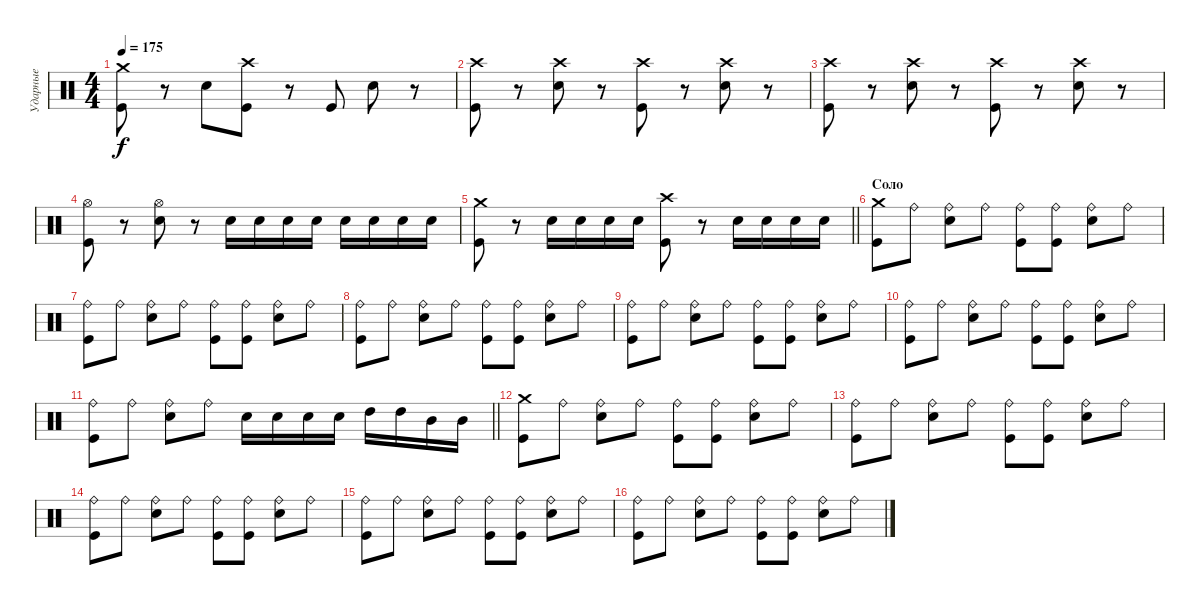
\track ("Ударные" "Ударные") {instrument percussion}
\staff {score}
\articulation defaults
\ts (4 4)
\tempo 175
\clef neutral
\ks c
("Crash medium (hit)" "Kick (hit)").8{dy f} r.8 "Electric Snare (hit)".8 ("Crash high (hit)" "Kick (hit)").8 r.8 "Kick (hit)".8 "Electric Snare (hit)".8 r.8 |
("Crash high (hit)" "Kick (hit)").8 r.8 ("Crash high (hit)" "Electric Snare (hit)").8 r.8 ("Crash high (hit)" "Kick (hit)").8 r.8 ("Crash high (hit)" "Electric Snare (hit)").8 r.8 |
("Crash high (hit)" "Kick (hit)").8 r.8 ("Crash high (hit)" "Electric Snare (hit)").8 r.8 ("Crash high (hit)" "Kick (hit)").8 r.8 ("Crash high (hit)" "Electric Snare (hit)").8 r.8 |
("Hi-Hat (open)" "Kick (hit)").8 r.8 ("Hi-Hat (open)" "Electric Snare (hit)").8 r.8 "Electric Snare (hit)".16 "Electric Snare (hit)".16 "Electric Snare (hit)".16 "Electric Snare (hit)".16 "Electric Snare (hit)".16 "Electric Snare (hit)".16 "Electric Snare (hit)".16 "Electric Snare (hit)".16 |
\barLineRight lightlight
("Crash medium (hit)" "Kick (hit)").8 r.8 "Electric Snare (hit)".16 "Electric Snare (hit)".16 "Electric Snare (hit)".16 "Electric Snare (hit)".16 ("Crash high (hit)" "Kick (hit)").8 r.8 "Electric Snare (hit)".16 "Electric Snare (hit)".16 "Electric Snare (hit)".16 "Electric Snare (hit)".16 |
\section ("" "Соло")
("Crash medium (hit)" "Kick (hit)").8 "Ride (bell)".8 ("Ride (bell)" "Electric Snare (hit)").8 "Ride (bell)".8 ("Ride (bell)" "Kick (hit)").8 ("Ride (bell)" "Kick (hit)").8 ("Ride (bell)" "Electric Snare (hit)").8 "Ride (bell)".8 |
("Ride (bell)" "Kick (hit)").8 "Ride (bell)".8 ("Ride (bell)" "Electric Snare (hit)").8 "Ride (bell)".8 ("Ride (bell)" "Kick (hit)").8 ("Ride (bell)" "Kick (hit)").8 ("Ride (bell)" "Electric Snare (hit)").8 "Ride (bell)".8 |
("Ride (bell)" "Kick (hit)").8 "Ride (bell)".8 ("Ride (bell)" "Electric Snare (hit)").8 "Ride (bell)".8 ("Ride (bell)" "Kick (hit)").8 ("Ride (bell)" "Kick (hit)").8 ("Ride (bell)" "Electric Snare (hit)").8 "Ride (bell)".8 |
("Ride (bell)" "Kick (hit)").8 "Ride (bell)".8 ("Ride (bell)" "Electric Snare (hit)").8 "Ride (bell)".8 ("Ride (bell)" "Kick (hit)").8 ("Ride (bell)" "Kick (hit)").8 ("Ride (bell)" "Electric Snare (hit)").8 "Ride (bell)".8 |
("Ride (bell)" "Kick (hit)").8 "Ride (bell)".8 ("Ride (bell)" "Electric Snare (hit)").8 "Ride (bell)".8 ("Ride (bell)" "Kick (hit)").8 ("Ride (bell)" "Kick (hit)").8 ("Ride (bell)" "Electric Snare (hit)").8 "Ride (bell)".8 |
\barLineRight lightlight
("Ride (bell)" "Kick (hit)").8 "Ride (bell)".8 ("Ride (bell)" "Electric Snare (hit)").8 "Ride (bell)".8 "Electric Snare (hit)".16 "Electric Snare (hit)".16 "Electric Snare (hit)".16 "Electric Snare (hit)".16 "High Tom (hit)".16 "High Tom (hit)".16 "Mid Tom (hit)".16 "Mid Tom (hit)".16 |
\section ("" " ")
("Crash medium (hit)" "Kick (hit)").8 "Ride (bell)".8 ("Ride (bell)" "Electric Snare (hit)").8 "Ride (bell)".8 ("Ride (bell)" "Kick (hit)").8 ("Ride (bell)" "Kick (hit)").8 ("Ride (bell)" "Electric Snare (hit)").8 "Ride (bell)".8 |
("Ride (bell)" "Kick (hit)").8 "Ride (bell)".8 ("Ride (bell)" "Electric Snare (hit)").8 "Ride (bell)".8 ("Ride (bell)" "Kick (hit)").8 ("Ride (bell)" "Kick (hit)").8 ("Ride (bell)" "Electric Snare (hit)").8 "Ride (bell)".8 |
("Ride (bell)" "Kick (hit)").8 "Ride (bell)".8 ("Ride (bell)" "Electric Snare (hit)").8 "Ride (bell)".8 ("Ride (bell)" "Kick (hit)").8 ("Ride (bell)" "Kick (hit)").8 ("Ride (bell)" "Electric Snare (hit)").8 "Ride (bell)".8 |
("Ride (bell)" "Kick (hit)").8 "Ride (bell)".8 ("Ride (bell)" "Electric Snare (hit)").8 "Ride (bell)".8 ("Ride (bell)" "Kick (hit)").8 ("Ride (bell)" "Kick (hit)").8 ("Ride (bell)" "Electric Snare (hit)").8 "Ride (bell)".8 |
("Ride (bell)" "Kick (hit)").8 "Ride (bell)".8 ("Ride (bell)" "Electric Snare (hit)").8 "Ride (bell)".8 ("Ride (bell)" "Kick (hit)").8 ("Ride (bell)" "Kick (hit)").8 ("Ride (bell)" "Electric Snare (hit)").8 "Ride (bell)".8
